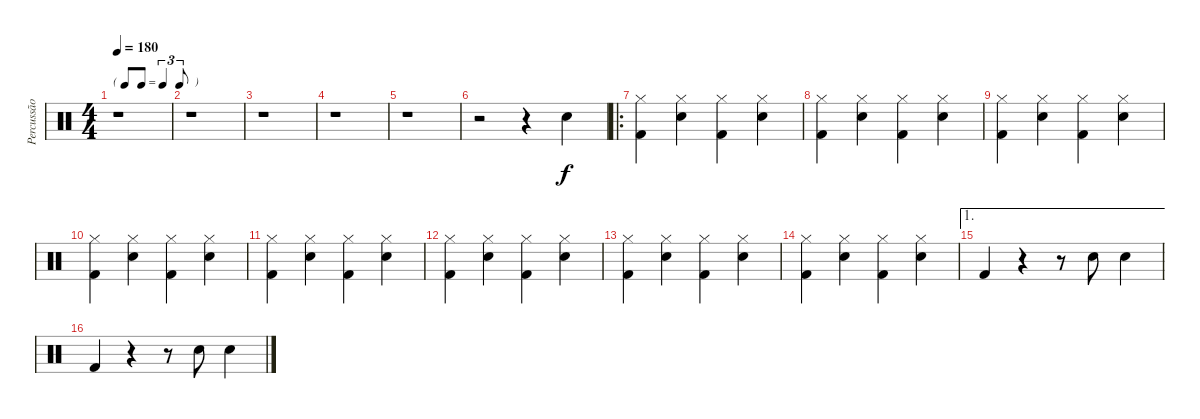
\track ("Percussão" "Percussão") {instrument percussion}
\staff {score}
\articulation defaults
\ts (4 4)
\tf triplet8th
\tempo 180
\clef neutral
\ks c
r.1{dy f} |
r.1 |
r.1 |
r.1 |
r.1 |
r.2 r.4 "Snare (hit) 2".4 |
\ro
("Hi-Hat (closed)" "Kick (hit) 2").4 ("Hi-Hat (closed)" "Snare (hit) 2").4 ("Hi-Hat (closed)" "Kick (hit) 2").4 ("Hi-Hat (closed)" "Snare (hit) 2").4 |
("Hi-Hat (closed)" "Kick (hit) 2").4 ("Hi-Hat (closed)" "Snare (hit) 2").4 ("Hi-Hat (closed)" "Kick (hit) 2").4 ("Hi-Hat (closed)" "Snare (hit) 2").4 |
("Hi-Hat (closed)" "Kick (hit) 2").4 ("Hi-Hat (closed)" "Snare (hit) 2").4 ("Hi-Hat (closed)" "Kick (hit) 2").4 ("Hi-Hat (closed)" "Snare (hit) 2").4 |
("Hi-Hat (closed)" "Kick (hit) 2").4 ("Hi-Hat (closed)" "Snare (hit) 2").4 ("Hi-Hat (closed)" "Kick (hit) 2").4 ("Hi-Hat (closed)" "Snare (hit) 2").4 |
("Hi-Hat (closed)" "Kick (hit) 2").4 ("Hi-Hat (closed)" "Snare (hit) 2").4 ("Hi-Hat (closed)" "Kick (hit) 2").4 ("Hi-Hat (closed)" "Snare (hit) 2").4 |
("Hi-Hat (closed)" "Kick (hit) 2").4 ("Hi-Hat (closed)" "Snare (hit) 2").4 ("Hi-Hat (closed)" "Kick (hit) 2").4 ("Hi-Hat (closed)" "Snare (hit) 2").4 |
("Hi-Hat (closed)" "Kick (hit) 2").4 ("Hi-Hat (closed)" "Snare (hit) 2").4 ("Hi-Hat (closed)" "Kick (hit) 2").4 ("Hi-Hat (closed)" "Snare (hit) 2").4 |
("Hi-Hat (closed)" "Kick (hit) 2").4 ("Hi-Hat (closed)" "Snare (hit) 2").4 ("Hi-Hat (closed)" "Kick (hit) 2").4 ("Hi-Hat (closed)" "Snare (hit) 2").4 |
\ae 1 "Kick (hit) 2".4
r.4 r.8 "Snare (hit) 2".8 "Snare (hit) 2".4 |
"Kick (hit) 2".4 r.4 r.8 "Snare (hit) 2".8 "Snare (hit) 2".4
